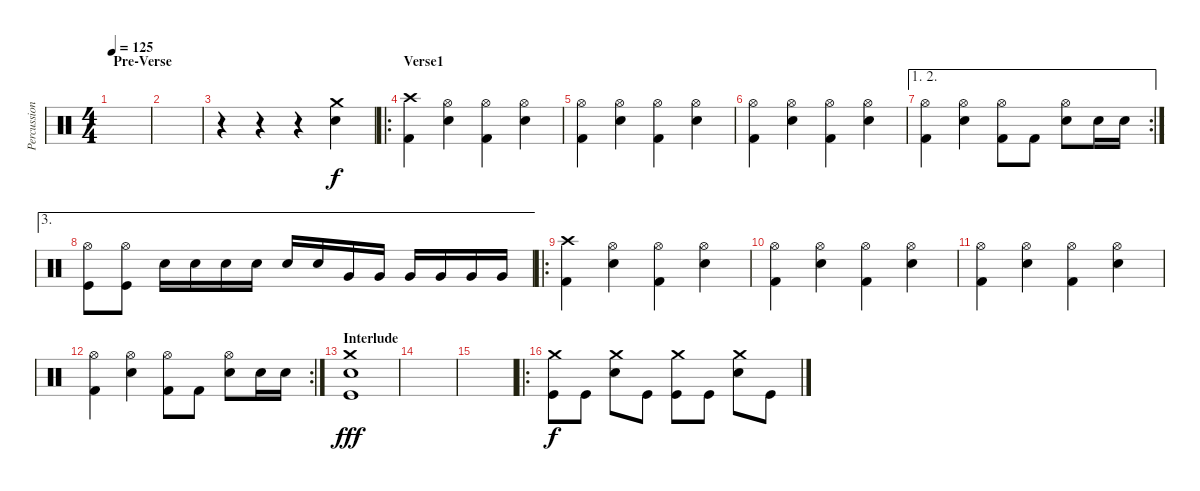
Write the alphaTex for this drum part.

\track ("Percussion" "Percussion") {instrument percussion}
\staff {score}
\articulation defaults
\ts (4 4)
\section ("" "Pre-Verse")
\tempo 125
\clef neutral
\ks c
|
|
r.4 r.4 r.4 ("Crash medium (hit)" "Snare (hit) 2").4 |
\ro
\section ("" "Verse1")
("Kick (hit) 2" "Crash high (hit)").4 ("Hi-Hat (open)" "Snare (hit) 2").4 ("Kick (hit) 2" "Hi-Hat (open)").4 ("Hi-Hat (open)" "Snare (hit) 2").4 |
("Kick (hit) 2" "Hi-Hat (open)").4 ("Hi-Hat (open)" "Snare (hit) 2").4 ("Kick (hit) 2" "Hi-Hat (open)").4 ("Hi-Hat (open)" "Snare (hit) 2").4 |
("Kick (hit) 2" "Hi-Hat (open)").4 ("Hi-Hat (open)" "Snare (hit) 2").4 ("Kick (hit) 2" "Hi-Hat (open)").4 ("Hi-Hat (open)" "Snare (hit) 2").4 |
\ae (1 2)
\rc 2
("Kick (hit) 2" "Hi-Hat (open)").4 ("Hi-Hat (open)" "Snare (hit) 2").4 ("Kick (hit) 2" "Hi-Hat (open)").8 "Kick (hit) 2".8 ("Hi-Hat (open)" "Snare (hit) 2").8 "Snare (hit) 2".16 "Snare (hit) 2".16 |
\ae 3
("Hi-Hat (open)" "Kick (hit)").8 ("Hi-Hat (open)" "Kick (hit)").8 "Snare (hit) 2".16 "Snare (hit) 2".16 "Snare (hit) 2".16 "Snare (hit) 2".16 "Snare (hit) 2".16 "Snare (hit) 2".16 "Very Low Tom (hit)".16 "Very Low Tom (hit)".16 "Very Low Tom (hit)".16 "Very Low Tom (hit)".16 "Very Low Tom (hit)".16 "Very Low Tom (hit)".16 |
\ro
("Kick (hit) 2" "Crash high (hit)").4 ("Hi-Hat (open)" "Snare (hit) 2").4 ("Kick (hit) 2" "Hi-Hat (open)").4 ("Hi-Hat (open)" "Snare (hit) 2").4 |
("Kick (hit) 2" "Hi-Hat (open)").4 ("Hi-Hat (open)" "Snare (hit) 2").4 ("Kick (hit) 2" "Hi-Hat (open)").4 ("Hi-Hat (open)" "Snare (hit) 2").4 |
("Kick (hit) 2" "Hi-Hat (open)").4 ("Hi-Hat (open)" "Snare (hit) 2").4 ("Kick (hit) 2" "Hi-Hat (open)").4 ("Hi-Hat (open)" "Snare (hit) 2").4 |
\rc 2
("Kick (hit) 2" "Hi-Hat (open)").4 ("Hi-Hat (open)" "Snare (hit) 2").4 ("Kick (hit) 2" "Hi-Hat (open)").8 "Kick (hit) 2".8 ("Hi-Hat (open)" "Snare (hit) 2").8 "Snare (hit) 2".16 "Snare (hit) 2".16 |
\section ("" "Interlude")
("Snare (hit) 2" "Crash medium (hit)" "Kick (hit)").1{dy fff} |
|
|
\ro
("Crash medium (hit)" "Kick (hit)").8{dy f} "Kick (hit)".8 ("Crash medium (hit)" "Snare (hit) 2").8 "Kick (hit)".8 ("Crash medium (hit)" "Kick (hit)").8 "Kick (hit)".8 ("Crash medium (hit)" "Snare (hit) 2").8 "Kick (hit)".8
